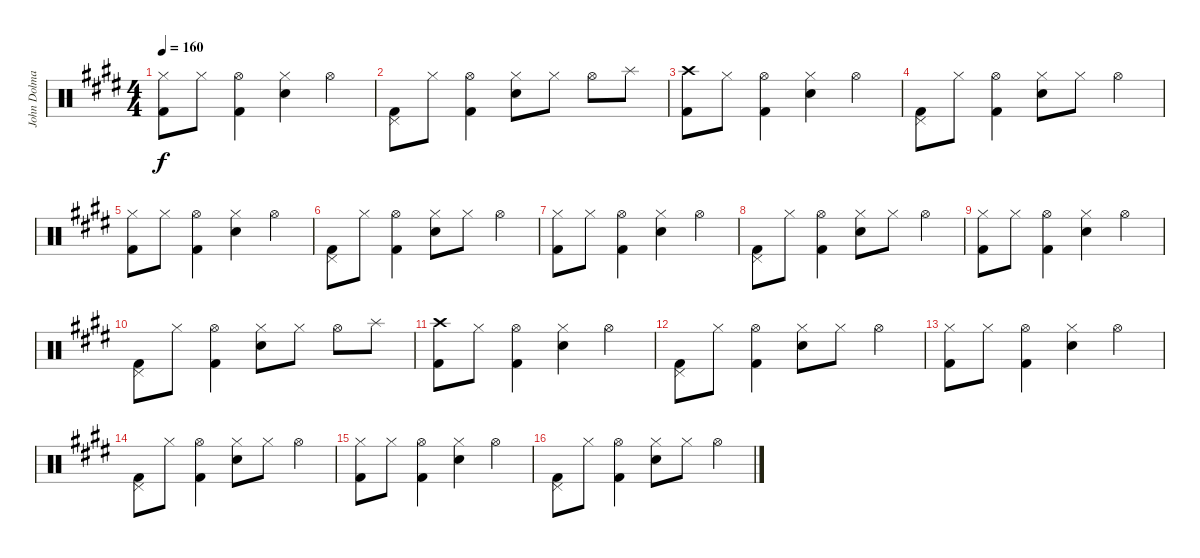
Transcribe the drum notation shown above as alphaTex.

\track ("John Dolmayan [Drums]" "John Dolma") {instrument percussion}
\staff {score}
\articulation defaults
\ts (4 4)
\tempo 160
\clef neutral
\ks c#minor
("Hi-Hat (closed)" "Kick (hit) 2").8{dy f} "Hi-Hat (closed)".8 ("Hi-Hat (open)" "Kick (hit) 2").4 ("Hi-Hat (closed)" "Electric Snare (hit)").4 "Hi-Hat (open)".4 |
("Pedal Hi-Hat (hit)" "Kick (hit) 2").8 "Hi-Hat (closed)".8 ("Hi-Hat (open)" "Kick (hit) 2").4 ("Hi-Hat (closed)" "Electric Snare (hit)").8 "Hi-Hat (closed)".8 "Hi-Hat (open)".8 "Splash (hit)".8 |
("Crash high (hit)" "Kick (hit) 2").8 "Hi-Hat (closed)".8 ("Hi-Hat (open)" "Kick (hit) 2").4 ("Hi-Hat (closed)" "Electric Snare (hit)").4 "Hi-Hat (open)".4 |
("Pedal Hi-Hat (hit)" "Kick (hit) 2").8 "Hi-Hat (closed)".8 ("Hi-Hat (open)" "Kick (hit) 2").4 ("Hi-Hat (closed)" "Electric Snare (hit)").8 "Hi-Hat (closed)".8 "Hi-Hat (open)".4 |
("Hi-Hat (closed)" "Kick (hit) 2").8 "Hi-Hat (closed)".8 ("Hi-Hat (open)" "Kick (hit) 2").4 ("Hi-Hat (closed)" "Electric Snare (hit)").4 "Hi-Hat (open)".4 |
("Pedal Hi-Hat (hit)" "Kick (hit) 2").8 "Hi-Hat (closed)".8 ("Hi-Hat (open)" "Kick (hit) 2").4 ("Hi-Hat (closed)" "Electric Snare (hit)").8 "Hi-Hat (closed)".8 "Hi-Hat (open)".4 |
("Hi-Hat (closed)" "Kick (hit) 2").8 "Hi-Hat (closed)".8 ("Hi-Hat (open)" "Kick (hit) 2").4 ("Hi-Hat (closed)" "Electric Snare (hit)").4 "Hi-Hat (open)".4 |
("Pedal Hi-Hat (hit)" "Kick (hit) 2").8 "Hi-Hat (closed)".8 ("Hi-Hat (open)" "Kick (hit) 2").4 ("Hi-Hat (closed)" "Electric Snare (hit)").8 "Hi-Hat (closed)".8 "Hi-Hat (open)".4 |
("Hi-Hat (closed)" "Kick (hit) 2").8 "Hi-Hat (closed)".8 ("Hi-Hat (open)" "Kick (hit) 2").4 ("Hi-Hat (closed)" "Electric Snare (hit)").4 "Hi-Hat (open)".4 |
("Pedal Hi-Hat (hit)" "Kick (hit) 2").8 "Hi-Hat (closed)".8 ("Hi-Hat (open)" "Kick (hit) 2").4 ("Hi-Hat (closed)" "Electric Snare (hit)").8 "Hi-Hat (closed)".8 "Hi-Hat (open)".8 "Splash (hit)".8 |
("Crash high (hit)" "Kick (hit) 2").8 "Hi-Hat (closed)".8 ("Hi-Hat (open)" "Kick (hit) 2").4 ("Hi-Hat (closed)" "Electric Snare (hit)").4 "Hi-Hat (open)".4 |
("Pedal Hi-Hat (hit)" "Kick (hit) 2").8 "Hi-Hat (closed)".8 ("Hi-Hat (open)" "Kick (hit) 2").4 ("Hi-Hat (closed)" "Electric Snare (hit)").8 "Hi-Hat (closed)".8 "Hi-Hat (open)".4 |
("Hi-Hat (closed)" "Kick (hit) 2").8 "Hi-Hat (closed)".8 ("Hi-Hat (open)" "Kick (hit) 2").4 ("Hi-Hat (closed)" "Electric Snare (hit)").4 "Hi-Hat (open)".4 |
("Pedal Hi-Hat (hit)" "Kick (hit) 2").8 "Hi-Hat (closed)".8 ("Hi-Hat (open)" "Kick (hit) 2").4 ("Hi-Hat (closed)" "Electric Snare (hit)").8 "Hi-Hat (closed)".8 "Hi-Hat (open)".4 |
("Hi-Hat (closed)" "Kick (hit) 2").8 "Hi-Hat (closed)".8 ("Hi-Hat (open)" "Kick (hit) 2").4 ("Hi-Hat (closed)" "Electric Snare (hit)").4 "Hi-Hat (open)".4 |
("Pedal Hi-Hat (hit)" "Kick (hit) 2").8 "Hi-Hat (closed)".8 ("Hi-Hat (open)" "Kick (hit) 2").4 ("Hi-Hat (closed)" "Electric Snare (hit)").8 "Hi-Hat (closed)".8 "Hi-Hat (open)".4
